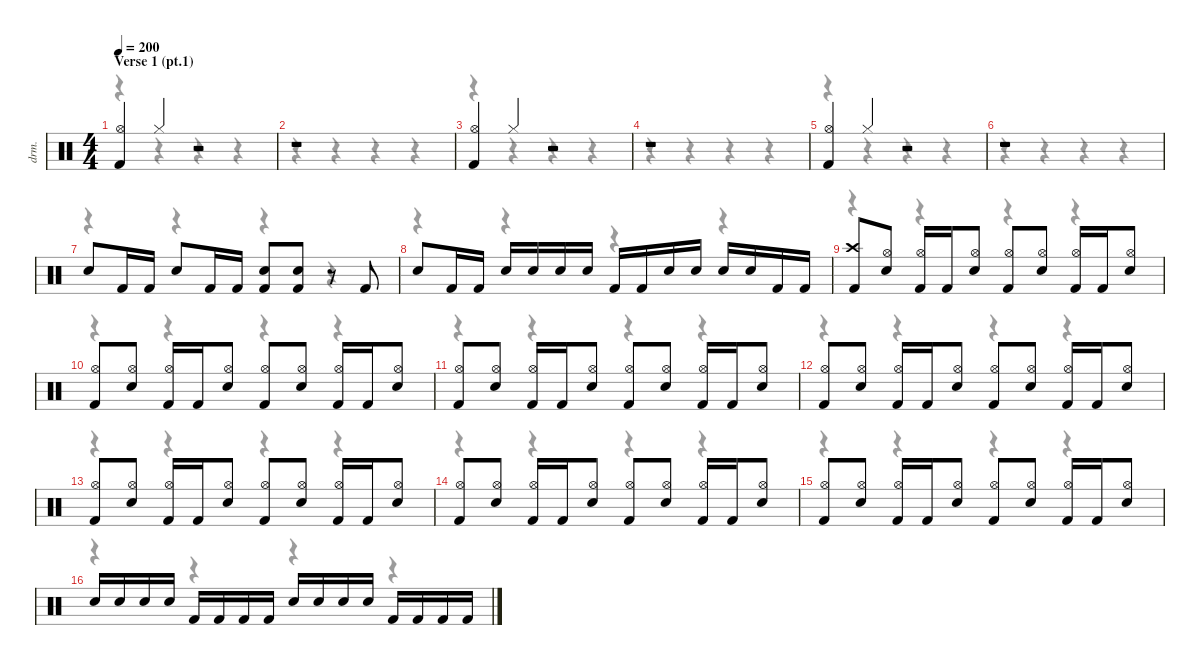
\defaultSystemsLayout 4
\hideDynamics
\bracketExtendMode nobrackets
\otherSystemsTrackNameOrientation horizontal
\track ("David Mackintosh (Drums)" "drm.") {instrument percussion}
\staff {score}
\articulation defaults
\voice
\ts (4 4)
\section ("" "Verse 1 (pt.1)")
\tempo 200
\clef neutral
\ks c
("Kick (hit) 2" "Hi-Hat (open)").4{dy f} "Hi-Hat (closed)".4{dy ppp} r.2 |
r.1 |
("Kick (hit) 2" "Hi-Hat (open)").4{dy f} "Hi-Hat (closed)".4{dy ppp} r.2 |
r.1 |
("Kick (hit) 2" "Hi-Hat (open)").4{dy f} "Hi-Hat (closed)".4{dy ppp} r.2 |
r.1 |
"Snare (hit) 2".8{dy f} "Kick (hit) 2".16 "Kick (hit) 2".16 "Snare (hit) 2".8 "Kick (hit) 2".16 "Kick (hit) 2".16 ("Kick (hit) 2" "Snare (hit) 2").8 ("Kick (hit) 2" "Snare (hit) 2").8 r.8 "Kick (hit) 2".8 |
"Snare (hit) 2".8 "Kick (hit) 2".16 "Kick (hit) 2".16 "Snare (hit) 2".16 "Snare (hit) 2".16 "Snare (hit) 2".16 "Snare (hit) 2".16 "Kick (hit) 2".16 "Kick (hit) 2".16 "Snare (hit) 2".16 "Snare (hit) 2".16 "Snare (hit) 2".16 "Snare (hit) 2".16 "Kick (hit) 2".16 "Kick (hit) 2".16 |
("Kick (hit) 2" "Crash high (hit)").8 ("Snare (hit) 2" "Hi-Hat (open)").8 ("Kick (hit) 2" "Hi-Hat (open)").16 "Kick (hit) 2".16 ("Snare (hit) 2" "Hi-Hat (open)").8 ("Kick (hit) 2" "Hi-Hat (open)").8 ("Snare (hit) 2" "Hi-Hat (open)").8 ("Kick (hit) 2" "Hi-Hat (open)").16 "Kick (hit) 2".16 ("Snare (hit) 2" "Hi-Hat (open)").8 |
("Kick (hit) 2" "Hi-Hat (open)").8 ("Snare (hit) 2" "Hi-Hat (open)").8 ("Kick (hit) 2" "Hi-Hat (open)").16 "Kick (hit) 2".16 ("Snare (hit) 2" "Hi-Hat (open)").8 ("Kick (hit) 2" "Hi-Hat (open)").8 ("Snare (hit) 2" "Hi-Hat (open)").8 ("Kick (hit) 2" "Hi-Hat (open)").16 "Kick (hit) 2".16 ("Snare (hit) 2" "Hi-Hat (open)").8 |
("Kick (hit) 2" "Hi-Hat (open)").8 ("Snare (hit) 2" "Hi-Hat (open)").8 ("Kick (hit) 2" "Hi-Hat (open)").16 "Kick (hit) 2".16 ("Snare (hit) 2" "Hi-Hat (open)").8 ("Kick (hit) 2" "Hi-Hat (open)").8 ("Snare (hit) 2" "Hi-Hat (open)").8 ("Kick (hit) 2" "Hi-Hat (open)").16 "Kick (hit) 2".16 ("Snare (hit) 2" "Hi-Hat (open)").8 |
("Kick (hit) 2" "Hi-Hat (open)").8 ("Snare (hit) 2" "Hi-Hat (open)").8 ("Kick (hit) 2" "Hi-Hat (open)").16 "Kick (hit) 2".16 ("Snare (hit) 2" "Hi-Hat (open)").8 ("Kick (hit) 2" "Hi-Hat (open)").8 ("Snare (hit) 2" "Hi-Hat (open)").8 ("Kick (hit) 2" "Hi-Hat (open)").16 "Kick (hit) 2".16 ("Snare (hit) 2" "Hi-Hat (open)").8 |
("Kick (hit) 2" "Hi-Hat (open)").8 ("Snare (hit) 2" "Hi-Hat (open)").8 ("Kick (hit) 2" "Hi-Hat (open)").16 "Kick (hit) 2".16 ("Snare (hit) 2" "Hi-Hat (open)").8 ("Kick (hit) 2" "Hi-Hat (open)").8 ("Snare (hit) 2" "Hi-Hat (open)").8 ("Kick (hit) 2" "Hi-Hat (open)").16 "Kick (hit) 2".16 ("Snare (hit) 2" "Hi-Hat (open)").8 |
("Kick (hit) 2" "Hi-Hat (open)").8 ("Snare (hit) 2" "Hi-Hat (open)").8 ("Kick (hit) 2" "Hi-Hat (open)").16 "Kick (hit) 2".16 ("Snare (hit) 2" "Hi-Hat (open)").8 ("Kick (hit) 2" "Hi-Hat (open)").8 ("Snare (hit) 2" "Hi-Hat (open)").8 ("Kick (hit) 2" "Hi-Hat (open)").16 "Kick (hit) 2".16 ("Snare (hit) 2" "Hi-Hat (open)").8 |
("Kick (hit) 2" "Hi-Hat (open)").8 ("Snare (hit) 2" "Hi-Hat (open)").8 ("Kick (hit) 2" "Hi-Hat (open)").16 "Kick (hit) 2".16 ("Snare (hit) 2" "Hi-Hat (open)").8 ("Kick (hit) 2" "Hi-Hat (open)").8 ("Snare (hit) 2" "Hi-Hat (open)").8 ("Kick (hit) 2" "Hi-Hat (open)").16 "Kick (hit) 2".16 ("Snare (hit) 2" "Hi-Hat (open)").8 |
"Snare (hit) 2".16 "Snare (hit) 2".16 "Snare (hit) 2".16 "Snare (hit) 2".16 "Kick (hit) 2".16{dy ff} "Kick (hit) 2".16 "Kick (hit) 2".16 "Kick (hit) 2".16 "Snare (hit) 2".16{dy f} "Snare (hit) 2".16 "Snare (hit) 2".16 "Snare (hit) 2".16 "Kick (hit) 2".16{dy ff} "Kick (hit) 2".16 "Kick (hit) 2".16 "Kick (hit) 2".16
\voice
\clef neutral
\ottava regular
\simile none
\ks c
r.4{dy mf} r.4 r.4 r.4 |
r.4 r.4 r.4 r.4 |
r.4 r.4 r.4 r.4 |
r.4 r.4 r.4 r.4 |
r.4 r.4 r.4 r.4 |
r.4 r.4 r.4 r.4 |
r.4 r.4 r.4 r.4 |
r.4 r.4 r.4 r.4 |
r.4 r.4 r.4 r.4 |
r.4 r.4 r.4 r.4 |
r.4 r.4 r.4 r.4 |
r.4 r.4 r.4 r.4 |
r.4 r.4 r.4 r.4 |
r.4 r.4 r.4 r.4 |
r.4 r.4 r.4 r.4 |
r.4 r.4 r.4 r.4
